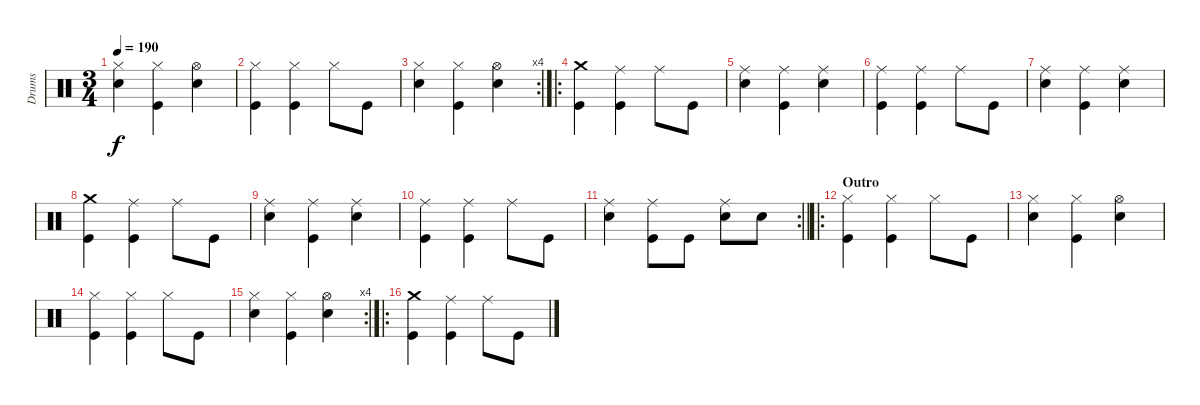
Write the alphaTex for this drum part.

\track ("Drums" "Drums") {instrument percussion bank 1}
\staff {score}
\articulation defaults
\ts (3 4)
\tempo 190
\clef neutral
\ks c
("Snare (hit) 2" "Hi-Hat (closed)").4{dy f} ("Kick (hit)" "Hi-Hat (closed)").4 ("Snare (hit) 2" "Hi-Hat (open)").4 |
("Kick (hit)" "Hi-Hat (closed)").4 ("Kick (hit)" "Hi-Hat (closed)").4 "Hi-Hat (closed)".8 "Kick (hit)".8 |
\rc 4
("Snare (hit) 2" "Hi-Hat (closed)").4 ("Kick (hit)" "Hi-Hat (closed)").4 ("Snare (hit) 2" "Hi-Hat (open)").4 |
\ro
("Kick (hit)" "Crash medium (hit)").4 ("Kick (hit)" "Ride (middle)").4 "Ride (middle)".8 "Kick (hit)".8 |
("Snare (hit) 2" "Ride (middle)").4 ("Kick (hit)" "Ride (middle)").4 ("Snare (hit) 2" "Ride (middle)").4 |
("Kick (hit)" "Ride (middle)").4 ("Kick (hit)" "Ride (middle)").4 "Ride (middle)".8 "Kick (hit)".8 |
("Snare (hit) 2" "Ride (middle)").4 ("Kick (hit)" "Ride (middle)").4 ("Snare (hit) 2" "Ride (middle)").4 |
("Kick (hit)" "Crash medium (hit)").4 ("Kick (hit)" "Ride (middle)").4 "Ride (middle)".8 "Kick (hit)".8 |
("Snare (hit) 2" "Ride (middle)").4 ("Kick (hit)" "Ride (middle)").4 ("Snare (hit) 2" "Ride (middle)").4 |
("Kick (hit)" "Ride (middle)").4 ("Kick (hit)" "Ride (middle)").4 "Ride (middle)".8 "Kick (hit)".8 |
\rc 2
\barLineRight lightlight
("Snare (hit) 2" "Ride (middle)").4 ("Kick (hit)" "Ride (middle)").8 "Kick (hit)".8 ("Snare (hit) 2" "Ride (middle)").8 "Snare (hit) 2".8 |
\ro
\section ("" "Outro")
("Kick (hit)" "Hi-Hat (closed)").4 ("Kick (hit)" "Hi-Hat (closed)").4 "Hi-Hat (closed)".8 "Kick (hit)".8 |
("Snare (hit) 2" "Hi-Hat (closed)").4 ("Kick (hit)" "Hi-Hat (closed)").4 ("Snare (hit) 2" "Hi-Hat (open)").4 |
("Kick (hit)" "Hi-Hat (closed)").4 ("Kick (hit)" "Hi-Hat (closed)").4 "Hi-Hat (closed)".8 "Kick (hit)".8 |
\rc 4
("Snare (hit) 2" "Hi-Hat (closed)").4 ("Kick (hit)" "Hi-Hat (closed)").4 ("Snare (hit) 2" "Hi-Hat (open)").4 |
\ro
("Kick (hit)" "Crash medium (hit)").4 ("Kick (hit)" "Ride (middle)").4 "Ride (middle)".8 "Kick (hit)".8
